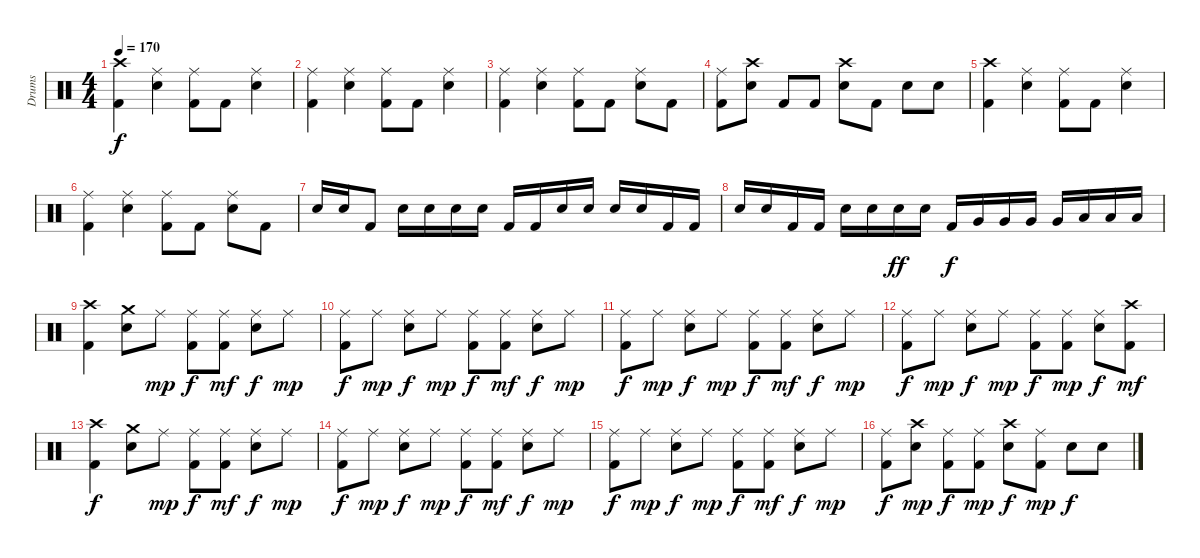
\track ("Drums" "Drums") {instrument percussion}
\staff {score}
\articulation defaults
\ts (4 4)
\tempo 170
\clef neutral
\ks c
("Crash high (hit)" "Kick (hit) 2").4{dy f} ("Ride (middle)" "Snare (hit) 2").4 ("Ride (middle)" "Kick (hit) 2").8 "Kick (hit) 2".8 ("Ride (middle)" "Snare (hit) 2").4 |
("Ride (middle)" "Kick (hit) 2").4 ("Ride (middle)" "Snare (hit) 2").4 ("Ride (middle)" "Kick (hit) 2").8 "Kick (hit) 2".8 ("Ride (middle)" "Snare (hit) 2").4 |
("Ride (middle)" "Kick (hit) 2").4 ("Ride (middle)" "Snare (hit) 2").4 ("Ride (middle)" "Kick (hit) 2").8 "Kick (hit) 2".8 ("Ride (middle)" "Snare (hit) 2").8 "Kick (hit) 2".8 |
("Ride (middle)" "Kick (hit) 2").8 ("Crash high (hit)" "Snare (hit) 2").8 "Kick (hit) 2".8 "Kick (hit) 2".8 ("Crash high (hit)" "Snare (hit) 2").8 "Kick (hit) 2".8 "Snare (hit) 2".8 "Snare (hit) 2".8 |
("Crash high (hit)" "Kick (hit) 2").4 ("Ride (middle)" "Snare (hit) 2").4 ("Ride (middle)" "Kick (hit) 2").8 "Kick (hit) 2".8 ("Ride (middle)" "Snare (hit) 2").4 |
("Ride (middle)" "Kick (hit) 2").4 ("Ride (middle)" "Snare (hit) 2").4 ("Ride (middle)" "Kick (hit) 2").8 "Kick (hit) 2".8 ("Ride (middle)" "Snare (hit) 2").8 "Kick (hit) 2".8 |
"Snare (hit) 2".16 "Snare (hit) 2".16 "Kick (hit) 2".8 "Snare (hit) 2".16 "Snare (hit) 2".16 "Snare (hit) 2".16 "Snare (hit) 2".16 "Kick (hit) 2".16 "Kick (hit) 2".16 "Snare (hit) 2".16 "Snare (hit) 2".16 "Snare (hit) 2".16 "Snare (hit) 2".16 "Kick (hit) 2".16 "Kick (hit) 2".16 |
"Snare (hit) 2".16 "Snare (hit) 2".16 "Kick (hit) 2".16 "Kick (hit) 2".16 "Snare (hit) 2".16 "Snare (hit) 2".16 "Snare (hit) 2".16{dy ff} "Snare (hit) 2".16 "Kick (hit) 2".16{dy f} "Very Low Tom (hit)".16 "Very Low Tom (hit)".16 "Very Low Tom (hit)".16 "Very Low Tom (hit)".16 "Low Floor Tom (hit)".16 "Low Floor Tom (hit)".16 "Low Floor Tom (hit)".16 |
("Crash high (hit)" "Kick (hit) 2").4 ("Crash medium (hit)" "Snare (hit) 2").8 "Ride (middle)".8{dy mp} ("Ride (middle)" "Kick (hit) 2").8{dy f} ("Ride (middle)" "Kick (hit) 2").8{dy mf} ("Ride (middle)" "Snare (hit) 2").8{dy f} "Ride (middle)".8{dy mp} |
("Ride (middle)" "Kick (hit) 2").8{dy f} "Ride (middle)".8{dy mp} ("Ride (middle)" "Snare (hit) 2").8{dy f} "Ride (middle)".8{dy mp} ("Ride (middle)" "Kick (hit) 2").8{dy f} ("Ride (middle)" "Kick (hit) 2").8{dy mf} ("Ride (middle)" "Snare (hit) 2").8{dy f} "Ride (middle)".8{dy mp} |
("Ride (middle)" "Kick (hit) 2").8{dy f} "Ride (middle)".8{dy mp} ("Ride (middle)" "Snare (hit) 2").8{dy f} "Ride (middle)".8{dy mp} ("Ride (middle)" "Kick (hit) 2").8{dy f} ("Ride (middle)" "Kick (hit) 2").8{dy mf} ("Ride (middle)" "Snare (hit) 2").8{dy f} "Ride (middle)".8{dy mp} |
("Ride (middle)" "Kick (hit) 2").8{dy f} "Ride (middle)".8{dy mp} ("Ride (middle)" "Snare (hit) 2").8{dy f} "Ride (middle)".8{dy mp} ("Ride (middle)" "Kick (hit) 2").8{dy f} ("Ride (middle)" "Kick (hit) 2").8{dy mp} ("Ride (middle)" "Snare (hit) 2").8{dy f} ("Crash high (hit)" "Kick (hit) 2").8{dy mf} |
("Crash high (hit)" "Kick (hit) 2").4{dy f} ("Crash medium (hit)" "Snare (hit) 2").8 "Ride (middle)".8{dy mp} ("Ride (middle)" "Kick (hit) 2").8{dy f} ("Ride (middle)" "Kick (hit) 2").8{dy mf} ("Ride (middle)" "Snare (hit) 2").8{dy f} "Ride (middle)".8{dy mp} |
("Ride (middle)" "Kick (hit) 2").8{dy f} "Ride (middle)".8{dy mp} ("Ride (middle)" "Snare (hit) 2").8{dy f} "Ride (middle)".8{dy mp} ("Ride (middle)" "Kick (hit) 2").8{dy f} ("Ride (middle)" "Kick (hit) 2").8{dy mf} ("Ride (middle)" "Snare (hit) 2").8{dy f} "Ride (middle)".8{dy mp} |
("Ride (middle)" "Kick (hit) 2").8{dy f} "Ride (middle)".8{dy mp} ("Ride (middle)" "Snare (hit) 2").8{dy f} "Ride (middle)".8{dy mp} ("Ride (middle)" "Kick (hit) 2").8{dy f} ("Ride (middle)" "Kick (hit) 2").8{dy mf} ("Ride (middle)" "Snare (hit) 2").8{dy f} "Ride (middle)".8{dy mp} |
("Ride (middle)" "Kick (hit) 2").8{dy f} ("Crash high (hit)" "Snare (hit) 2").8{dy mp} ("Ride (middle)" "Kick (hit) 2").8{dy f} ("Ride (middle)" "Kick (hit) 2").8{dy mp} ("Crash high (hit)" "Snare (hit) 2").8{dy f} ("Ride (middle)" "Kick (hit) 2").8{dy mp} "Snare (hit) 2".8{dy f} "Snare (hit) 2".8
